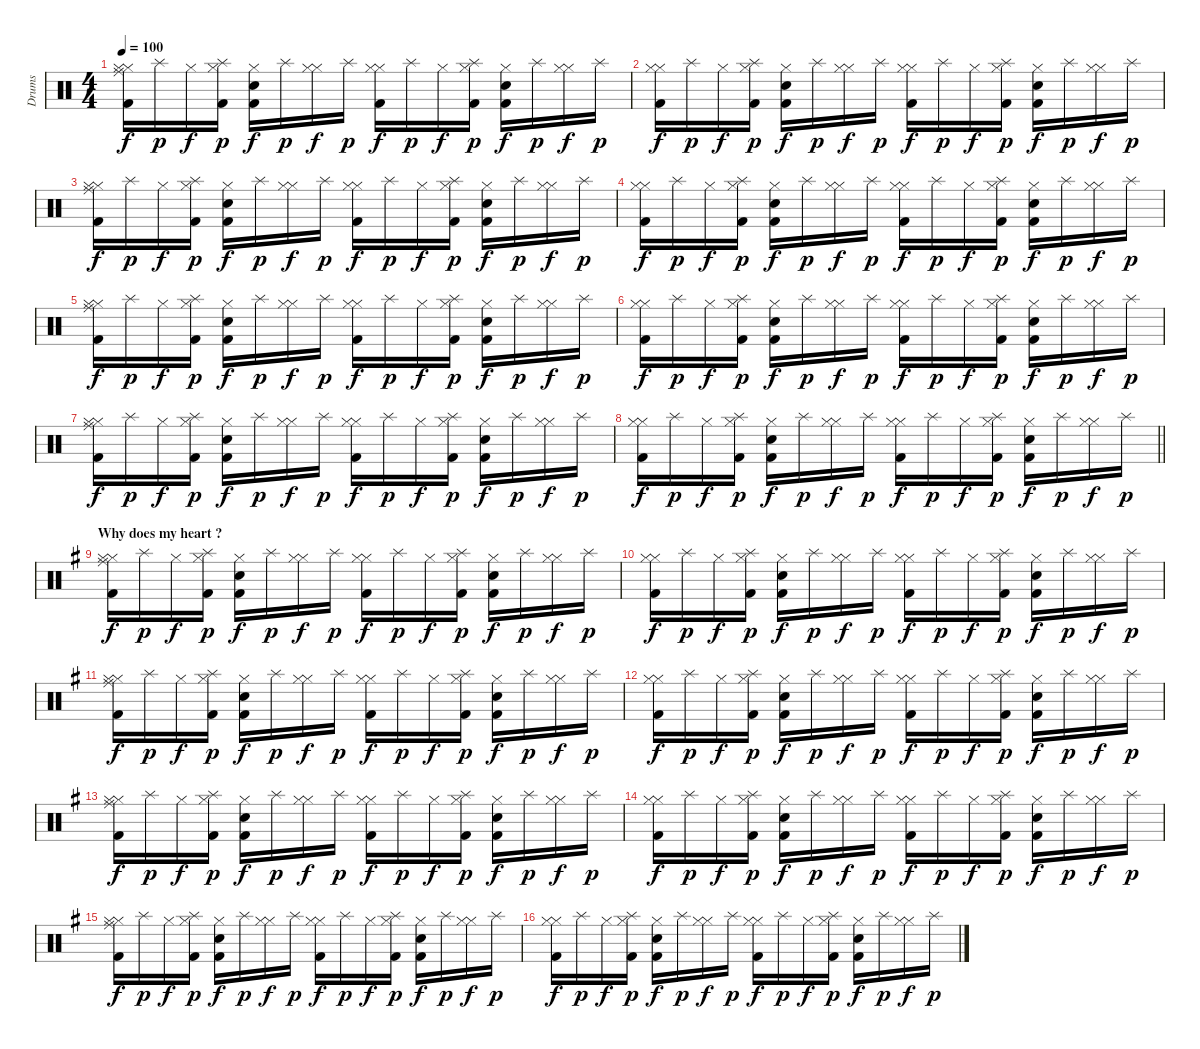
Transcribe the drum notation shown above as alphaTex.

\track ("Drums" "Drums") {instrument percussion}
\staff {score}
\articulation defaults
\ts (4 4)
\tempo 100
\clef neutral
\ks c
("Ride (middle)" "Hi-Hat (closed)" "Hi-Hat (closed)" "Kick (hit) 2").16{dy f} "Splash (hit)".16{dy p} "Hi-Hat (closed)".16{dy f} ("Splash (hit)" "Hi-Hat (closed)" "Kick (hit) 2").16{dy p} ("Electric Snare (hit)" "Hi-Hat (closed)" "Kick (hit) 2").16{dy f} "Splash (hit)".16{dy p} ("Hi-Hat (closed)" "Hi-Hat (closed)").16{dy f} "Splash (hit)".16{dy p} ("Hi-Hat (closed)" "Hi-Hat (closed)" "Kick (hit) 2").16{dy f} "Splash (hit)".16{dy p} "Hi-Hat (closed)".16{dy f} ("Splash (hit)" "Hi-Hat (closed)" "Kick (hit) 2").16{dy p} ("Electric Snare (hit)" "Hi-Hat (closed)" "Kick (hit) 2").16{dy f} "Splash (hit)".16{dy p} ("Hi-Hat (closed)" "Hi-Hat (closed)").16{dy f} "Splash (hit)".16{dy p} |
("Hi-Hat (closed)" "Hi-Hat (closed)" "Kick (hit) 2").16{dy f} "Splash (hit)".16{dy p} "Hi-Hat (closed)".16{dy f} ("Splash (hit)" "Hi-Hat (closed)" "Kick (hit) 2").16{dy p} ("Electric Snare (hit)" "Hi-Hat (closed)" "Kick (hit) 2").16{dy f} "Splash (hit)".16{dy p} ("Hi-Hat (closed)" "Hi-Hat (closed)").16{dy f} "Splash (hit)".16{dy p} ("Hi-Hat (closed)" "Hi-Hat (closed)" "Kick (hit) 2").16{dy f} "Splash (hit)".16{dy p} "Hi-Hat (closed)".16{dy f} ("Splash (hit)" "Hi-Hat (closed)" "Kick (hit) 2").16{dy p} ("Electric Snare (hit)" "Hi-Hat (closed)" "Kick (hit) 2").16{dy f} "Splash (hit)".16{dy p} ("Hi-Hat (closed)" "Hi-Hat (closed)").16{dy f} "Splash (hit)".16{dy p} |
("Ride (middle)" "Hi-Hat (closed)" "Hi-Hat (closed)" "Kick (hit) 2").16{dy f} "Splash (hit)".16{dy p} "Hi-Hat (closed)".16{dy f} ("Splash (hit)" "Hi-Hat (closed)" "Kick (hit) 2").16{dy p} ("Electric Snare (hit)" "Hi-Hat (closed)" "Kick (hit) 2").16{dy f} "Splash (hit)".16{dy p} ("Hi-Hat (closed)" "Hi-Hat (closed)").16{dy f} "Splash (hit)".16{dy p} ("Hi-Hat (closed)" "Hi-Hat (closed)" "Kick (hit) 2").16{dy f} "Splash (hit)".16{dy p} "Hi-Hat (closed)".16{dy f} ("Splash (hit)" "Hi-Hat (closed)" "Kick (hit) 2").16{dy p} ("Electric Snare (hit)" "Hi-Hat (closed)" "Kick (hit) 2").16{dy f} "Splash (hit)".16{dy p} ("Hi-Hat (closed)" "Hi-Hat (closed)").16{dy f} "Splash (hit)".16{dy p} |
("Hi-Hat (closed)" "Hi-Hat (closed)" "Kick (hit) 2").16{dy f} "Splash (hit)".16{dy p} "Hi-Hat (closed)".16{dy f} ("Splash (hit)" "Hi-Hat (closed)" "Kick (hit) 2").16{dy p} ("Electric Snare (hit)" "Hi-Hat (closed)" "Kick (hit) 2").16{dy f} "Splash (hit)".16{dy p} ("Hi-Hat (closed)" "Hi-Hat (closed)").16{dy f} "Splash (hit)".16{dy p} ("Hi-Hat (closed)" "Hi-Hat (closed)" "Kick (hit) 2").16{dy f} "Splash (hit)".16{dy p} "Hi-Hat (closed)".16{dy f} ("Splash (hit)" "Hi-Hat (closed)" "Kick (hit) 2").16{dy p} ("Electric Snare (hit)" "Hi-Hat (closed)" "Kick (hit) 2").16{dy f} "Splash (hit)".16{dy p} ("Hi-Hat (closed)" "Hi-Hat (closed)").16{dy f} "Splash (hit)".16{dy p} |
("Ride (middle)" "Hi-Hat (closed)" "Hi-Hat (closed)" "Kick (hit) 2").16{dy f} "Splash (hit)".16{dy p} "Hi-Hat (closed)".16{dy f} ("Splash (hit)" "Hi-Hat (closed)" "Kick (hit) 2").16{dy p} ("Electric Snare (hit)" "Hi-Hat (closed)" "Kick (hit) 2").16{dy f} "Splash (hit)".16{dy p} ("Hi-Hat (closed)" "Hi-Hat (closed)").16{dy f} "Splash (hit)".16{dy p} ("Hi-Hat (closed)" "Hi-Hat (closed)" "Kick (hit) 2").16{dy f} "Splash (hit)".16{dy p} "Hi-Hat (closed)".16{dy f} ("Splash (hit)" "Hi-Hat (closed)" "Kick (hit) 2").16{dy p} ("Electric Snare (hit)" "Hi-Hat (closed)" "Kick (hit) 2").16{dy f} "Splash (hit)".16{dy p} ("Hi-Hat (closed)" "Hi-Hat (closed)").16{dy f} "Splash (hit)".16{dy p} |
("Hi-Hat (closed)" "Hi-Hat (closed)" "Kick (hit) 2").16{dy f} "Splash (hit)".16{dy p} "Hi-Hat (closed)".16{dy f} ("Splash (hit)" "Hi-Hat (closed)" "Kick (hit) 2").16{dy p} ("Electric Snare (hit)" "Hi-Hat (closed)" "Kick (hit) 2").16{dy f} "Splash (hit)".16{dy p} ("Hi-Hat (closed)" "Hi-Hat (closed)").16{dy f} "Splash (hit)".16{dy p} ("Hi-Hat (closed)" "Hi-Hat (closed)" "Kick (hit) 2").16{dy f} "Splash (hit)".16{dy p} "Hi-Hat (closed)".16{dy f} ("Splash (hit)" "Hi-Hat (closed)" "Kick (hit) 2").16{dy p} ("Electric Snare (hit)" "Hi-Hat (closed)" "Kick (hit) 2").16{dy f} "Splash (hit)".16{dy p} ("Hi-Hat (closed)" "Hi-Hat (closed)").16{dy f} "Splash (hit)".16{dy p} |
("Ride (middle)" "Hi-Hat (closed)" "Hi-Hat (closed)" "Kick (hit) 2").16{dy f} "Splash (hit)".16{dy p} "Hi-Hat (closed)".16{dy f} ("Splash (hit)" "Hi-Hat (closed)" "Kick (hit) 2").16{dy p} ("Electric Snare (hit)" "Hi-Hat (closed)" "Kick (hit) 2").16{dy f} "Splash (hit)".16{dy p} ("Hi-Hat (closed)" "Hi-Hat (closed)").16{dy f} "Splash (hit)".16{dy p} ("Hi-Hat (closed)" "Hi-Hat (closed)" "Kick (hit) 2").16{dy f} "Splash (hit)".16{dy p} "Hi-Hat (closed)".16{dy f} ("Splash (hit)" "Hi-Hat (closed)" "Kick (hit) 2").16{dy p} ("Electric Snare (hit)" "Hi-Hat (closed)" "Kick (hit) 2").16{dy f} "Splash (hit)".16{dy p} ("Hi-Hat (closed)" "Hi-Hat (closed)").16{dy f} "Splash (hit)".16{dy p} |
\barLineRight lightlight
("Hi-Hat (closed)" "Hi-Hat (closed)" "Kick (hit) 2").16{dy f} "Splash (hit)".16{dy p} "Hi-Hat (closed)".16{dy f} ("Splash (hit)" "Hi-Hat (closed)" "Kick (hit) 2").16{dy p} ("Electric Snare (hit)" "Hi-Hat (closed)" "Kick (hit) 2").16{dy f} "Splash (hit)".16{dy p} ("Hi-Hat (closed)" "Hi-Hat (closed)").16{dy f} "Splash (hit)".16{dy p} ("Hi-Hat (closed)" "Hi-Hat (closed)" "Kick (hit) 2").16{dy f} "Splash (hit)".16{dy p} "Hi-Hat (closed)".16{dy f} ("Splash (hit)" "Hi-Hat (closed)" "Kick (hit) 2").16{dy p} ("Electric Snare (hit)" "Hi-Hat (closed)" "Kick (hit) 2").16{dy f} "Splash (hit)".16{dy p} ("Hi-Hat (closed)" "Hi-Hat (closed)").16{dy f} "Splash (hit)".16{dy p} |
\section ("" "Why does my heart ?")
\ks g
("Ride (middle)" "Hi-Hat (closed)" "Hi-Hat (closed)" "Kick (hit) 2").16{dy f} "Splash (hit)".16{dy p} "Hi-Hat (closed)".16{dy f} ("Splash (hit)" "Hi-Hat (closed)" "Kick (hit) 2").16{dy p} ("Electric Snare (hit)" "Hi-Hat (closed)" "Kick (hit) 2").16{dy f} "Splash (hit)".16{dy p} ("Hi-Hat (closed)" "Hi-Hat (closed)").16{dy f} "Splash (hit)".16{dy p} ("Hi-Hat (closed)" "Hi-Hat (closed)" "Kick (hit) 2").16{dy f} "Splash (hit)".16{dy p} "Hi-Hat (closed)".16{dy f} ("Splash (hit)" "Hi-Hat (closed)" "Kick (hit) 2").16{dy p} ("Electric Snare (hit)" "Hi-Hat (closed)" "Kick (hit) 2").16{dy f} "Splash (hit)".16{dy p} ("Hi-Hat (closed)" "Hi-Hat (closed)").16{dy f} "Splash (hit)".16{dy p} |
("Hi-Hat (closed)" "Hi-Hat (closed)" "Kick (hit) 2").16{dy f} "Splash (hit)".16{dy p} "Hi-Hat (closed)".16{dy f} ("Splash (hit)" "Hi-Hat (closed)" "Kick (hit) 2").16{dy p} ("Electric Snare (hit)" "Hi-Hat (closed)" "Kick (hit) 2").16{dy f} "Splash (hit)".16{dy p} ("Hi-Hat (closed)" "Hi-Hat (closed)").16{dy f} "Splash (hit)".16{dy p} ("Hi-Hat (closed)" "Hi-Hat (closed)" "Kick (hit) 2").16{dy f} "Splash (hit)".16{dy p} "Hi-Hat (closed)".16{dy f} ("Splash (hit)" "Hi-Hat (closed)" "Kick (hit) 2").16{dy p} ("Electric Snare (hit)" "Hi-Hat (closed)" "Kick (hit) 2").16{dy f} "Splash (hit)".16{dy p} ("Hi-Hat (closed)" "Hi-Hat (closed)").16{dy f} "Splash (hit)".16{dy p} |
("Ride (middle)" "Hi-Hat (closed)" "Hi-Hat (closed)" "Kick (hit) 2").16{dy f} "Splash (hit)".16{dy p} "Hi-Hat (closed)".16{dy f} ("Splash (hit)" "Hi-Hat (closed)" "Kick (hit) 2").16{dy p} ("Electric Snare (hit)" "Hi-Hat (closed)" "Kick (hit) 2").16{dy f} "Splash (hit)".16{dy p} ("Hi-Hat (closed)" "Hi-Hat (closed)").16{dy f} "Splash (hit)".16{dy p} ("Hi-Hat (closed)" "Hi-Hat (closed)" "Kick (hit) 2").16{dy f} "Splash (hit)".16{dy p} "Hi-Hat (closed)".16{dy f} ("Splash (hit)" "Hi-Hat (closed)" "Kick (hit) 2").16{dy p} ("Electric Snare (hit)" "Hi-Hat (closed)" "Kick (hit) 2").16{dy f} "Splash (hit)".16{dy p} ("Hi-Hat (closed)" "Hi-Hat (closed)").16{dy f} "Splash (hit)".16{dy p} |
("Hi-Hat (closed)" "Hi-Hat (closed)" "Kick (hit) 2").16{dy f} "Splash (hit)".16{dy p} "Hi-Hat (closed)".16{dy f} ("Splash (hit)" "Hi-Hat (closed)" "Kick (hit) 2").16{dy p} ("Electric Snare (hit)" "Hi-Hat (closed)" "Kick (hit) 2").16{dy f} "Splash (hit)".16{dy p} ("Hi-Hat (closed)" "Hi-Hat (closed)").16{dy f} "Splash (hit)".16{dy p} ("Hi-Hat (closed)" "Hi-Hat (closed)" "Kick (hit) 2").16{dy f} "Splash (hit)".16{dy p} "Hi-Hat (closed)".16{dy f} ("Splash (hit)" "Hi-Hat (closed)" "Kick (hit) 2").16{dy p} ("Electric Snare (hit)" "Hi-Hat (closed)" "Kick (hit) 2").16{dy f} "Splash (hit)".16{dy p} ("Hi-Hat (closed)" "Hi-Hat (closed)").16{dy f} "Splash (hit)".16{dy p} |
("Ride (middle)" "Hi-Hat (closed)" "Hi-Hat (closed)" "Kick (hit) 2").16{dy f} "Splash (hit)".16{dy p} "Hi-Hat (closed)".16{dy f} ("Splash (hit)" "Hi-Hat (closed)" "Kick (hit) 2").16{dy p} ("Electric Snare (hit)" "Hi-Hat (closed)" "Kick (hit) 2").16{dy f} "Splash (hit)".16{dy p} ("Hi-Hat (closed)" "Hi-Hat (closed)").16{dy f} "Splash (hit)".16{dy p} ("Hi-Hat (closed)" "Hi-Hat (closed)" "Kick (hit) 2").16{dy f} "Splash (hit)".16{dy p} "Hi-Hat (closed)".16{dy f} ("Splash (hit)" "Hi-Hat (closed)" "Kick (hit) 2").16{dy p} ("Electric Snare (hit)" "Hi-Hat (closed)" "Kick (hit) 2").16{dy f} "Splash (hit)".16{dy p} ("Hi-Hat (closed)" "Hi-Hat (closed)").16{dy f} "Splash (hit)".16{dy p} |
("Hi-Hat (closed)" "Hi-Hat (closed)" "Kick (hit) 2").16{dy f} "Splash (hit)".16{dy p} "Hi-Hat (closed)".16{dy f} ("Splash (hit)" "Hi-Hat (closed)" "Kick (hit) 2").16{dy p} ("Electric Snare (hit)" "Hi-Hat (closed)" "Kick (hit) 2").16{dy f} "Splash (hit)".16{dy p} ("Hi-Hat (closed)" "Hi-Hat (closed)").16{dy f} "Splash (hit)".16{dy p} ("Hi-Hat (closed)" "Hi-Hat (closed)" "Kick (hit) 2").16{dy f} "Splash (hit)".16{dy p} "Hi-Hat (closed)".16{dy f} ("Splash (hit)" "Hi-Hat (closed)" "Kick (hit) 2").16{dy p} ("Electric Snare (hit)" "Hi-Hat (closed)" "Kick (hit) 2").16{dy f} "Splash (hit)".16{dy p} ("Hi-Hat (closed)" "Hi-Hat (closed)").16{dy f} "Splash (hit)".16{dy p} |
("Ride (middle)" "Hi-Hat (closed)" "Hi-Hat (closed)" "Kick (hit) 2").16{dy f} "Splash (hit)".16{dy p} "Hi-Hat (closed)".16{dy f} ("Splash (hit)" "Hi-Hat (closed)" "Kick (hit) 2").16{dy p} ("Electric Snare (hit)" "Hi-Hat (closed)" "Kick (hit) 2").16{dy f} "Splash (hit)".16{dy p} ("Hi-Hat (closed)" "Hi-Hat (closed)").16{dy f} "Splash (hit)".16{dy p} ("Hi-Hat (closed)" "Hi-Hat (closed)" "Kick (hit) 2").16{dy f} "Splash (hit)".16{dy p} "Hi-Hat (closed)".16{dy f} ("Splash (hit)" "Hi-Hat (closed)" "Kick (hit) 2").16{dy p} ("Electric Snare (hit)" "Hi-Hat (closed)" "Kick (hit) 2").16{dy f} "Splash (hit)".16{dy p} ("Hi-Hat (closed)" "Hi-Hat (closed)").16{dy f} "Splash (hit)".16{dy p} |
("Hi-Hat (closed)" "Hi-Hat (closed)" "Kick (hit) 2").16{dy f} "Splash (hit)".16{dy p} "Hi-Hat (closed)".16{dy f} ("Splash (hit)" "Hi-Hat (closed)" "Kick (hit) 2").16{dy p} ("Electric Snare (hit)" "Hi-Hat (closed)" "Kick (hit) 2").16{dy f} "Splash (hit)".16{dy p} ("Hi-Hat (closed)" "Hi-Hat (closed)").16{dy f} "Splash (hit)".16{dy p} ("Hi-Hat (closed)" "Hi-Hat (closed)" "Kick (hit) 2").16{dy f} "Splash (hit)".16{dy p} "Hi-Hat (closed)".16{dy f} ("Splash (hit)" "Hi-Hat (closed)" "Kick (hit) 2").16{dy p} ("Electric Snare (hit)" "Hi-Hat (closed)" "Kick (hit) 2").16{dy f} "Splash (hit)".16{dy p} ("Hi-Hat (closed)" "Hi-Hat (closed)").16{dy f} "Splash (hit)".16{dy p}
